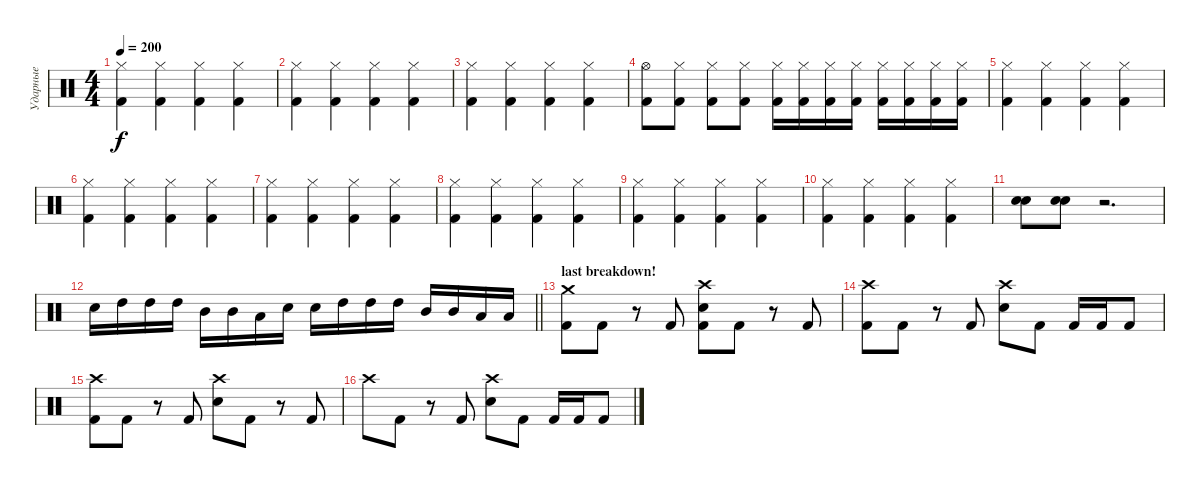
\track ("Ударные" "Ударные") {instrument percussion}
\staff {score}
\articulation defaults
\ts (4 4)
\tempo 200
\clef neutral
\ks c
("Hi-Hat (closed)" "Kick (hit) 2").4{dy f} ("Hi-Hat (closed)" "Kick (hit) 2").4 ("Hi-Hat (closed)" "Kick (hit) 2").4 ("Hi-Hat (closed)" "Kick (hit) 2").4 |
("Hi-Hat (closed)" "Kick (hit) 2").4 ("Hi-Hat (closed)" "Kick (hit) 2").4 ("Hi-Hat (closed)" "Kick (hit) 2").4 ("Hi-Hat (closed)" "Kick (hit) 2").4 |
("Hi-Hat (closed)" "Kick (hit) 2").4 ("Hi-Hat (closed)" "Kick (hit) 2").4 ("Hi-Hat (closed)" "Kick (hit) 2").4 ("Hi-Hat (closed)" "Kick (hit) 2").4 |
("Hi-Hat (open)" "Kick (hit) 2").8 ("Hi-Hat (closed)" "Kick (hit) 2").8 ("Hi-Hat (closed)" "Kick (hit) 2").8 ("Hi-Hat (closed)" "Kick (hit) 2").8 ("Hi-Hat (closed)" "Kick (hit) 2").16 ("Hi-Hat (closed)" "Kick (hit) 2").16 ("Hi-Hat (closed)" "Kick (hit) 2").16 ("Hi-Hat (closed)" "Kick (hit) 2").16 ("Hi-Hat (closed)" "Kick (hit) 2").16 ("Hi-Hat (closed)" "Kick (hit) 2").16 ("Hi-Hat (closed)" "Kick (hit) 2").16 ("Hi-Hat (closed)" "Kick (hit) 2").16 |
("Hi-Hat (closed)" "Kick (hit) 2").4 ("Hi-Hat (closed)" "Kick (hit) 2").4 ("Hi-Hat (closed)" "Kick (hit) 2").4 ("Hi-Hat (closed)" "Kick (hit) 2").4 |
("Hi-Hat (closed)" "Kick (hit) 2").4 ("Hi-Hat (closed)" "Kick (hit) 2").4 ("Hi-Hat (closed)" "Kick (hit) 2").4 ("Hi-Hat (closed)" "Kick (hit) 2").4 |
("Hi-Hat (closed)" "Kick (hit) 2").4 ("Hi-Hat (closed)" "Kick (hit) 2").4 ("Hi-Hat (closed)" "Kick (hit) 2").4 ("Hi-Hat (closed)" "Kick (hit) 2").4 |
("Hi-Hat (closed)" "Kick (hit) 2").4 ("Hi-Hat (closed)" "Kick (hit) 2").4 ("Hi-Hat (closed)" "Kick (hit) 2").4 ("Hi-Hat (closed)" "Kick (hit) 2").4 |
("Hi-Hat (closed)" "Kick (hit) 2").4 ("Hi-Hat (closed)" "Kick (hit) 2").4 ("Hi-Hat (closed)" "Kick (hit) 2").4 ("Hi-Hat (closed)" "Kick (hit) 2").4 |
("Hi-Hat (closed)" "Kick (hit) 2").4 ("Hi-Hat (closed)" "Kick (hit) 2").4 ("Hi-Hat (closed)" "Kick (hit) 2").4 ("Hi-Hat (closed)" "Kick (hit) 2").4 |
("Electric Snare (hit)" "Electric Snare (hit)").8 ("Electric Snare (hit)" "Electric Snare (hit)").8 r.2{d} |
\barLineRight lightlight "Electric Snare (hit)".16 "High Tom (hit)".16 "High Tom (hit)".16 "High Tom (hit)".16 "Mid Tom (hit)".16 "Mid Tom (hit)".16 "Low Tom (hit)".16 "Electric Snare (hit)".16 "Electric Snare (hit)".16 "High Tom (hit)".16 "High Tom (hit)".16 "High Tom (hit)".16 "Mid Tom (hit)".16 "Mid Tom (hit)".16 "Low Tom (hit)".16 "Low Tom (hit)".16
|
\section ("" "last breakdown!")
("Crash medium (hit)" "Kick (hit) 2").8 "Kick (hit) 2".8 r.8 "Kick (hit) 2".8 ("Crash high (hit)" "Electric Snare (hit)" "Kick (hit) 2").8 "Kick (hit) 2".8 r.8 "Kick (hit) 2".8 |
("Crash high (hit)" "Kick (hit) 2").8 "Kick (hit) 2".8 r.8 "Kick (hit) 2".8 ("Crash high (hit)" "Electric Snare (hit)").8 "Kick (hit) 2".8 "Kick (hit) 2".16 "Kick (hit) 2".16 "Kick (hit) 2".8 |
("Crash high (hit)" "Kick (hit) 2").8 "Kick (hit) 2".8 r.8 "Kick (hit) 2".8 ("Crash high (hit)" "Electric Snare (hit)").8 "Kick (hit) 2".8 r.8 "Kick (hit) 2".8 |
"Crash high (hit)".8 "Kick (hit) 2".8 r.8 "Kick (hit) 2".8 ("Crash high (hit)" "Electric Snare (hit)").8 "Kick (hit) 2".8 "Kick (hit) 2".16 "Kick (hit) 2".16 "Kick (hit) 2".8
